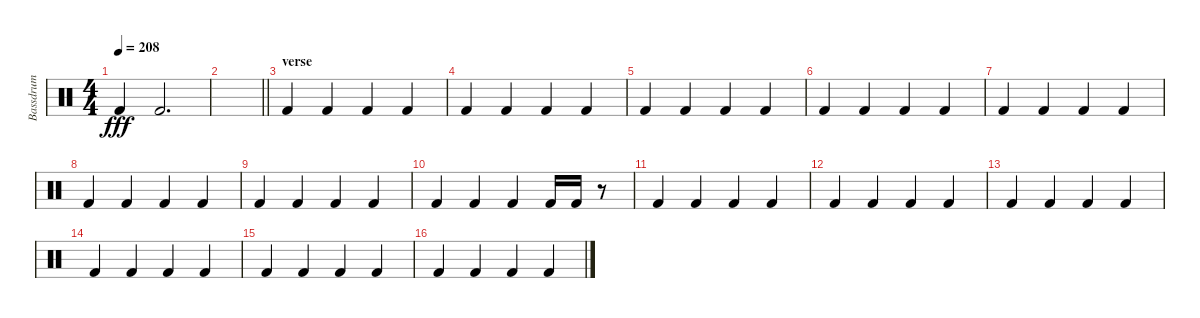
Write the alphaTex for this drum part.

\track ("Bassdrum" "Bassdrum") {instrument percussion}
\staff {score}
\articulation defaults
\ts (4 4)
\tempo 208
\clef neutral
\ks c "Kick (hit) 2".4{dy fff} "Kick (hit) 2".2{d}
|
\barLineRight lightlight
|
\section ("" "verse")
"Kick (hit) 2".4 "Kick (hit) 2".4 "Kick (hit) 2".4 "Kick (hit) 2".4 |
"Kick (hit) 2".4 "Kick (hit) 2".4 "Kick (hit) 2".4 "Kick (hit) 2".4 |
"Kick (hit) 2".4 "Kick (hit) 2".4 "Kick (hit) 2".4 "Kick (hit) 2".4 |
"Kick (hit) 2".4 "Kick (hit) 2".4 "Kick (hit) 2".4 "Kick (hit) 2".4 |
"Kick (hit) 2".4 "Kick (hit) 2".4 "Kick (hit) 2".4 "Kick (hit) 2".4 |
"Kick (hit) 2".4 "Kick (hit) 2".4 "Kick (hit) 2".4 "Kick (hit) 2".4 |
"Kick (hit) 2".4 "Kick (hit) 2".4 "Kick (hit) 2".4 "Kick (hit) 2".4 |
"Kick (hit) 2".4 "Kick (hit) 2".4 "Kick (hit) 2".4 "Kick (hit) 2".16 "Kick (hit) 2".16 r.8 |
"Kick (hit) 2".4 "Kick (hit) 2".4 "Kick (hit) 2".4 "Kick (hit) 2".4 |
"Kick (hit) 2".4 "Kick (hit) 2".4 "Kick (hit) 2".4 "Kick (hit) 2".4 |
"Kick (hit) 2".4 "Kick (hit) 2".4 "Kick (hit) 2".4 "Kick (hit) 2".4 |
"Kick (hit) 2".4 "Kick (hit) 2".4 "Kick (hit) 2".4 "Kick (hit) 2".4 |
"Kick (hit) 2".4 "Kick (hit) 2".4 "Kick (hit) 2".4 "Kick (hit) 2".4 |
"Kick (hit) 2".4 "Kick (hit) 2".4 "Kick (hit) 2".4 "Kick (hit) 2".4
